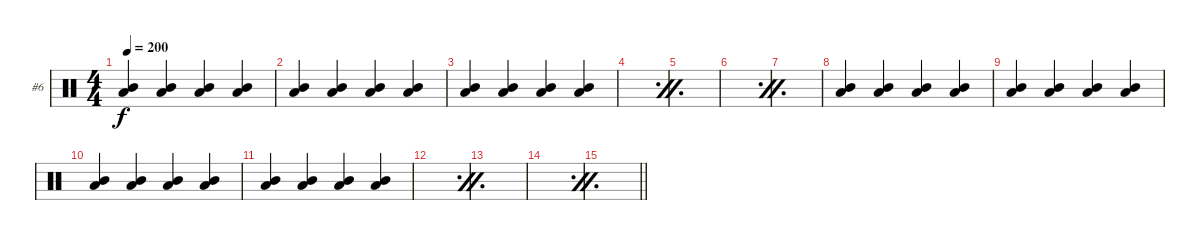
\bracketExtendMode groupsimilarinstruments
\firstSystemTrackNameOrientation horizontal
\otherSystemsTrackNameOrientation horizontal
\track ("Shawn \"Clown\" Crahan" "#6") {instrument percussion}
\staff {score}
\articulation defaults
\ts (4 4)
\tempo 200
\clef neutral
\ks c
("Low Tom (hit)" "Mid Tom (hit)").4{dy f} ("Low Tom (hit)" "Mid Tom (hit)").4 ("Low Tom (hit)" "Mid Tom (hit)").4 ("Low Tom (hit)" "Mid Tom (hit)").4 |
("Low Tom (hit)" "Mid Tom (hit)").4 ("Low Tom (hit)" "Mid Tom (hit)").4 ("Low Tom (hit)" "Mid Tom (hit)").4 ("Low Tom (hit)" "Mid Tom (hit)").4 |
("Low Tom (hit)" "Mid Tom (hit)").4 ("Low Tom (hit)" "Mid Tom (hit)").4 ("Low Tom (hit)" "Mid Tom (hit)").4 ("Low Tom (hit)" "Mid Tom (hit)").4 |
\simile firstofdouble
|
\simile secondofdouble
|
\simile firstofdouble
|
\simile secondofdouble
|
\simile none
("Low Tom (hit)" "Mid Tom (hit)").4 ("Low Tom (hit)" "Mid Tom (hit)").4 ("Low Tom (hit)" "Mid Tom (hit)").4 ("Low Tom (hit)" "Mid Tom (hit)").4 |
("Low Tom (hit)" "Mid Tom (hit)").4 ("Low Tom (hit)" "Mid Tom (hit)").4 ("Low Tom (hit)" "Mid Tom (hit)").4 ("Low Tom (hit)" "Mid Tom (hit)").4 |
("Low Tom (hit)" "Mid Tom (hit)").4 ("Low Tom (hit)" "Mid Tom (hit)").4 ("Low Tom (hit)" "Mid Tom (hit)").4 ("Low Tom (hit)" "Mid Tom (hit)").4 |
("Low Tom (hit)" "Mid Tom (hit)").4 ("Low Tom (hit)" "Mid Tom (hit)").4 ("Low Tom (hit)" "Mid Tom (hit)").4 ("Low Tom (hit)" "Mid Tom (hit)").4 |
\simile firstofdouble
|
\simile secondofdouble
|
\simile firstofdouble
|
\simile secondofdouble
\barLineRight lightlight
|
\simile none
